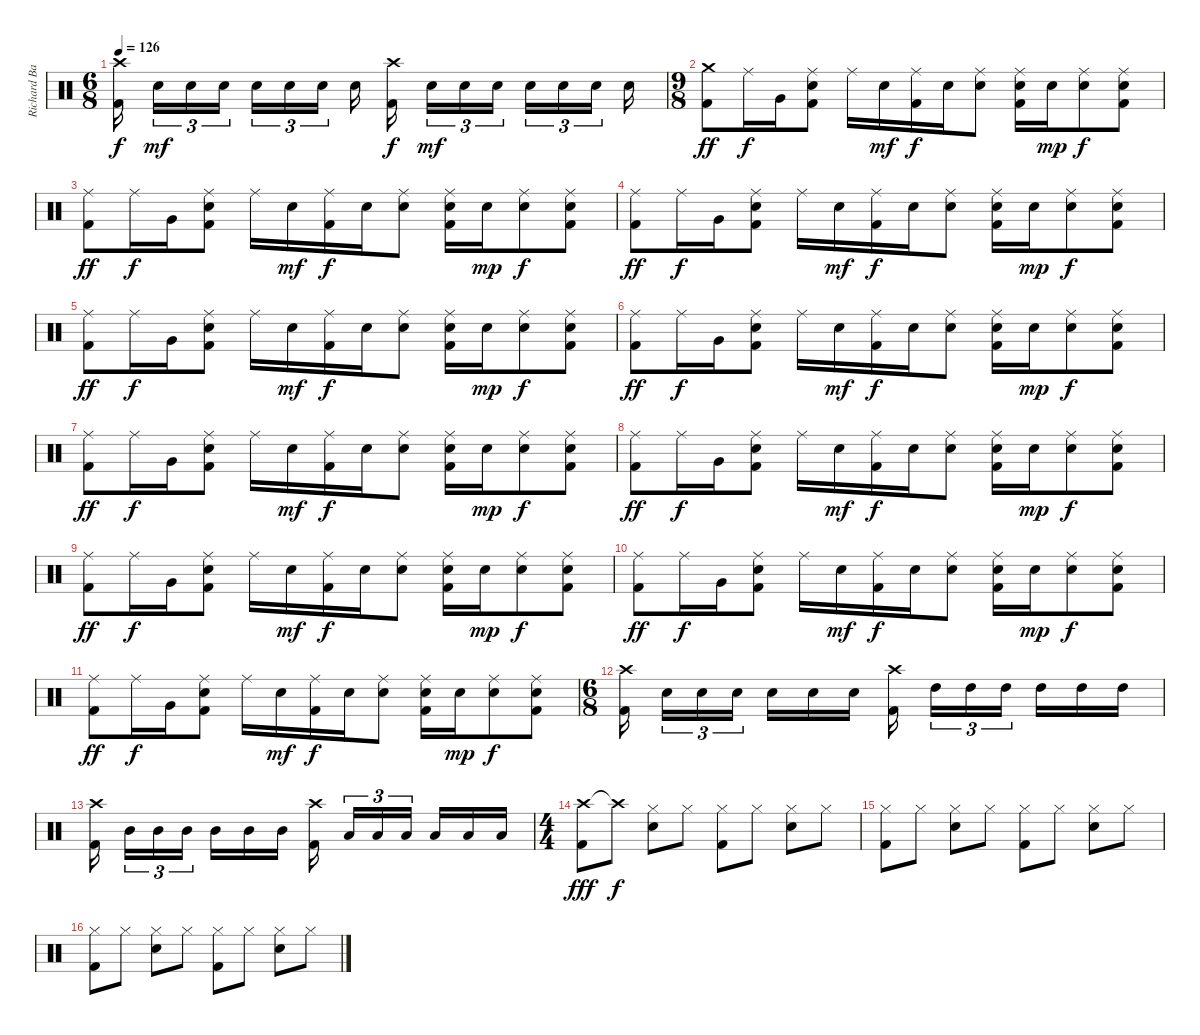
\track ("Richard Bailey" "Richard Ba") {instrument percussion}
\staff {score}
\articulation defaults
\ts (6 8)
\tempo 126
\clef neutral
\ks c
("Crash high (hit)" "Kick (hit) 2").16{dy f} "Snare (hit) 2".16{tu (3 2) dy mf} "Snare (hit) 2".16{tu (3 2)} "Snare (hit) 2".16{tu (3 2)} "Snare (hit) 2".16{tu (3 2)} "Snare (hit) 2".16{tu (3 2)} "Snare (hit) 2".16{tu (3 2)} "Snare (hit) 2".16 ("Crash high (hit)" "Kick (hit) 2").16{dy f} "Snare (hit) 2".16{tu (3 2) dy mf} "Snare (hit) 2".16{tu (3 2)} "Snare (hit) 2".16{tu (3 2)} "Snare (hit) 2".16{tu (3 2)} "Snare (hit) 2".16{tu (3 2)} "Snare (hit) 2".16{tu (3 2)} "Snare (hit) 2".16 |
\ts (9 8)
("Crash medium (hit)" "Kick (hit) 2").8{dy ff} "Ride (middle)".16{dy f} "Very Low Tom (hit)".16 ("Ride (middle)" "Snare (hit) 2" "Kick (hit) 2").8 "Ride (middle)".16 "Snare (hit) 2".16{dy mf} ("Ride (middle)" "Kick (hit) 2").16{dy f} "Snare (hit) 2".16 ("Ride (middle)" "Snare (hit) 2").8 ("Ride (middle)" "Snare (hit) 2" "Kick (hit) 2").16 "Snare (hit) 2".16{dy mp} ("Ride (middle)" "Snare (hit) 2").8{dy f} ("Ride (middle)" "Snare (hit) 2" "Kick (hit) 2").8 |
("Ride (middle)" "Kick (hit) 2").8{dy ff} "Ride (middle)".16{dy f} "Very Low Tom (hit)".16 ("Ride (middle)" "Snare (hit) 2" "Kick (hit) 2").8 "Ride (middle)".16 "Snare (hit) 2".16{dy mf} ("Ride (middle)" "Kick (hit) 2").16{dy f} "Snare (hit) 2".16 ("Ride (middle)" "Snare (hit) 2").8 ("Ride (middle)" "Snare (hit) 2" "Kick (hit) 2").16 "Snare (hit) 2".16{dy mp} ("Ride (middle)" "Snare (hit) 2").8{dy f} ("Ride (middle)" "Snare (hit) 2" "Kick (hit) 2").8 |
("Ride (middle)" "Kick (hit) 2").8{dy ff} "Ride (middle)".16{dy f} "Very Low Tom (hit)".16 ("Ride (middle)" "Snare (hit) 2" "Kick (hit) 2").8 "Ride (middle)".16 "Snare (hit) 2".16{dy mf} ("Ride (middle)" "Kick (hit) 2").16{dy f} "Snare (hit) 2".16 ("Ride (middle)" "Snare (hit) 2").8 ("Ride (middle)" "Snare (hit) 2" "Kick (hit) 2").16 "Snare (hit) 2".16{dy mp} ("Ride (middle)" "Snare (hit) 2").8{dy f} ("Ride (middle)" "Snare (hit) 2" "Kick (hit) 2").8 |
("Ride (middle)" "Kick (hit) 2").8{dy ff} "Ride (middle)".16{dy f} "Very Low Tom (hit)".16 ("Ride (middle)" "Snare (hit) 2" "Kick (hit) 2").8 "Ride (middle)".16 "Snare (hit) 2".16{dy mf} ("Ride (middle)" "Kick (hit) 2").16{dy f} "Snare (hit) 2".16 ("Ride (middle)" "Snare (hit) 2").8 ("Ride (middle)" "Snare (hit) 2" "Kick (hit) 2").16 "Snare (hit) 2".16{dy mp} ("Ride (middle)" "Snare (hit) 2").8{dy f} ("Ride (middle)" "Snare (hit) 2" "Kick (hit) 2").8 |
("Ride (middle)" "Kick (hit) 2").8{dy ff} "Ride (middle)".16{dy f} "Very Low Tom (hit)".16 ("Ride (middle)" "Snare (hit) 2" "Kick (hit) 2").8 "Ride (middle)".16 "Snare (hit) 2".16{dy mf} ("Ride (middle)" "Kick (hit) 2").16{dy f} "Snare (hit) 2".16 ("Ride (middle)" "Snare (hit) 2").8 ("Ride (middle)" "Snare (hit) 2" "Kick (hit) 2").16 "Snare (hit) 2".16{dy mp} ("Ride (middle)" "Snare (hit) 2").8{dy f} ("Ride (middle)" "Snare (hit) 2" "Kick (hit) 2").8 |
("Ride (middle)" "Kick (hit) 2").8{dy ff} "Ride (middle)".16{dy f} "Very Low Tom (hit)".16 ("Ride (middle)" "Snare (hit) 2" "Kick (hit) 2").8 "Ride (middle)".16 "Snare (hit) 2".16{dy mf} ("Ride (middle)" "Kick (hit) 2").16{dy f} "Snare (hit) 2".16 ("Ride (middle)" "Snare (hit) 2").8 ("Ride (middle)" "Snare (hit) 2" "Kick (hit) 2").16 "Snare (hit) 2".16{dy mp} ("Ride (middle)" "Snare (hit) 2").8{dy f} ("Ride (middle)" "Snare (hit) 2" "Kick (hit) 2").8 |
("Ride (middle)" "Kick (hit) 2").8{dy ff} "Ride (middle)".16{dy f} "Very Low Tom (hit)".16 ("Ride (middle)" "Snare (hit) 2" "Kick (hit) 2").8 "Ride (middle)".16 "Snare (hit) 2".16{dy mf} ("Ride (middle)" "Kick (hit) 2").16{dy f} "Snare (hit) 2".16 ("Ride (middle)" "Snare (hit) 2").8 ("Ride (middle)" "Snare (hit) 2" "Kick (hit) 2").16 "Snare (hit) 2".16{dy mp} ("Ride (middle)" "Snare (hit) 2").8{dy f} ("Ride (middle)" "Snare (hit) 2" "Kick (hit) 2").8 |
("Ride (middle)" "Kick (hit) 2").8{dy ff} "Ride (middle)".16{dy f} "Very Low Tom (hit)".16 ("Ride (middle)" "Snare (hit) 2" "Kick (hit) 2").8 "Ride (middle)".16 "Snare (hit) 2".16{dy mf} ("Ride (middle)" "Kick (hit) 2").16{dy f} "Snare (hit) 2".16 ("Ride (middle)" "Snare (hit) 2").8 ("Ride (middle)" "Snare (hit) 2" "Kick (hit) 2").16 "Snare (hit) 2".16{dy mp} ("Ride (middle)" "Snare (hit) 2").8{dy f} ("Ride (middle)" "Snare (hit) 2" "Kick (hit) 2").8 |
("Ride (middle)" "Kick (hit) 2").8{dy ff} "Ride (middle)".16{dy f} "Very Low Tom (hit)".16 ("Ride (middle)" "Snare (hit) 2" "Kick (hit) 2").8 "Ride (middle)".16 "Snare (hit) 2".16{dy mf} ("Ride (middle)" "Kick (hit) 2").16{dy f} "Snare (hit) 2".16 ("Ride (middle)" "Snare (hit) 2").8 ("Ride (middle)" "Snare (hit) 2" "Kick (hit) 2").16 "Snare (hit) 2".16{dy mp} ("Ride (middle)" "Snare (hit) 2").8{dy f} ("Ride (middle)" "Snare (hit) 2" "Kick (hit) 2").8 |
("Ride (middle)" "Kick (hit) 2").8{dy ff} "Ride (middle)".16{dy f} "Very Low Tom (hit)".16 ("Ride (middle)" "Snare (hit) 2" "Kick (hit) 2").8 "Ride (middle)".16 "Snare (hit) 2".16{dy mf} ("Ride (middle)" "Kick (hit) 2").16{dy f} "Snare (hit) 2".16 ("Ride (middle)" "Snare (hit) 2").8 ("Ride (middle)" "Snare (hit) 2" "Kick (hit) 2").16 "Snare (hit) 2".16{dy mp} ("Ride (middle)" "Snare (hit) 2").8{dy f} ("Ride (middle)" "Snare (hit) 2" "Kick (hit) 2").8 |
\ts (6 8)
("Crash high (hit)" "Kick (hit) 2").16 "Snare (hit) 2".16{tu (3 2)} "Snare (hit) 2".16{tu (3 2)} "Snare (hit) 2".16{tu (3 2)} "Snare (hit) 2".16 "Snare (hit) 2".16 "Snare (hit) 2".16 ("Crash high (hit)" "Kick (hit) 2").16 "High Tom (hit)".16{tu (3 2)} "High Tom (hit)".16{tu (3 2)} "High Tom (hit)".16{tu (3 2)} "High Tom (hit)".16 "High Tom (hit)".16 "High Tom (hit)".16 |
("Crash high (hit)" "Kick (hit) 2").16 "Mid Tom (hit)".16{tu (3 2)} "Mid Tom (hit)".16{tu (3 2)} "Mid Tom (hit)".16{tu (3 2)} "Mid Tom (hit)".16 "Mid Tom (hit)".16 "Mid Tom (hit)".16 ("Crash high (hit)" "Kick (hit) 2").16 "Low Tom (hit)".16{tu (3 2)} "Low Tom (hit)".16{tu (3 2)} "Low Tom (hit)".16{tu (3 2)} "Low Tom (hit)".16 "Low Tom (hit)".16 "Low Tom (hit)".16 |
\ts (4 4)
("Crash high (hit)" "Kick (hit) 2").8{dy fff} "Crash high (hit)"{t}.8{dy f} ("Hi-Hat (closed)" "Snare (hit) 2").8 "Hi-Hat (closed)".8 ("Hi-Hat (closed)" "Kick (hit) 2").8 "Hi-Hat (closed)".8 ("Hi-Hat (closed)" "Snare (hit) 2").8 "Hi-Hat (closed)".8 |
("Hi-Hat (closed)" "Kick (hit) 2").8 "Hi-Hat (closed)".8 ("Hi-Hat (closed)" "Snare (hit) 2").8 "Hi-Hat (closed)".8 ("Hi-Hat (closed)" "Kick (hit) 2").8 "Hi-Hat (closed)".8 ("Hi-Hat (closed)" "Snare (hit) 2").8 "Hi-Hat (closed)".8 |
("Hi-Hat (closed)" "Kick (hit) 2").8 "Hi-Hat (closed)".8 ("Hi-Hat (closed)" "Snare (hit) 2").8 "Hi-Hat (closed)".8 ("Hi-Hat (closed)" "Kick (hit) 2").8 "Hi-Hat (closed)".8 ("Hi-Hat (closed)" "Snare (hit) 2").8 "Hi-Hat (closed)".8
